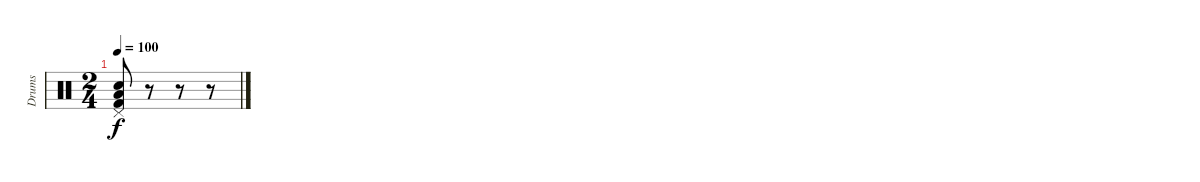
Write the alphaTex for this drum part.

\track ("Drums" "Drums") {instrument percussion}
\staff {score}
\articulation defaults
\ts (2 4)
\tempo 100
\clef neutral
\ks c
("Pedal Hi-Hat (hit)" "Low Floor Tom (hit)" "Electric Snare (hit)" "Kick (hit) 2").8{dy f} r.8 r.8 r.8
